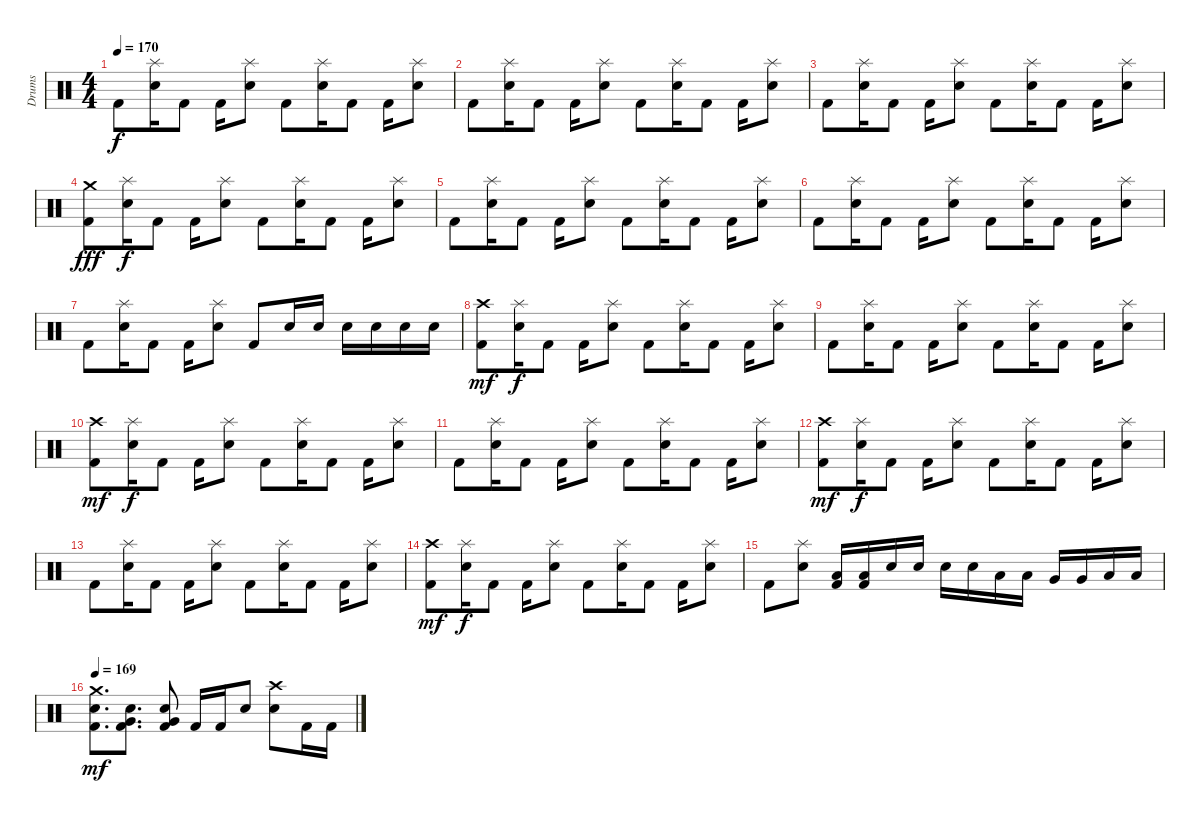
\track ("Drums" "Drums") {instrument percussion}
\staff {score}
\articulation defaults
\ts (4 4)
\tempo 170
\clef neutral
\ks c "Kick (hit) 2".8{dy f}
("Electric Snare (hit)" "Splash (hit)").16 "Kick (hit) 2".8 "Kick (hit) 2".16 ("Electric Snare (hit)" "Splash (hit)").8 "Kick (hit) 2".8 ("Electric Snare (hit)" "Splash (hit)").16 "Kick (hit) 2".8 "Kick (hit) 2".16 ("Electric Snare (hit)" "Splash (hit)").8 |
"Kick (hit) 2".8 ("Electric Snare (hit)" "Splash (hit)").16 "Kick (hit) 2".8 "Kick (hit) 2".16 ("Electric Snare (hit)" "Splash (hit)").8 "Kick (hit) 2".8 ("Electric Snare (hit)" "Splash (hit)").16 "Kick (hit) 2".8 "Kick (hit) 2".16 ("Electric Snare (hit)" "Splash (hit)").8 |
"Kick (hit) 2".8 ("Electric Snare (hit)" "Splash (hit)").16 "Kick (hit) 2".8 "Kick (hit) 2".16 ("Electric Snare (hit)" "Splash (hit)").8 "Kick (hit) 2".8 ("Electric Snare (hit)" "Splash (hit)").16 "Kick (hit) 2".8 "Kick (hit) 2".16 ("Electric Snare (hit)" "Splash (hit)").8 |
("Kick (hit) 2" "Crash medium (hit)").8{dy fff} ("Electric Snare (hit)" "Splash (hit)").16{dy f} "Kick (hit) 2".8 "Kick (hit) 2".16 ("Electric Snare (hit)" "Splash (hit)").8 "Kick (hit) 2".8 ("Electric Snare (hit)" "Splash (hit)").16 "Kick (hit) 2".8 "Kick (hit) 2".16 ("Electric Snare (hit)" "Splash (hit)").8 |
"Kick (hit) 2".8 ("Electric Snare (hit)" "Splash (hit)").16 "Kick (hit) 2".8 "Kick (hit) 2".16 ("Electric Snare (hit)" "Splash (hit)").8 "Kick (hit) 2".8 ("Electric Snare (hit)" "Splash (hit)").16 "Kick (hit) 2".8 "Kick (hit) 2".16 ("Electric Snare (hit)" "Splash (hit)").8 |
"Kick (hit) 2".8 ("Electric Snare (hit)" "Splash (hit)").16 "Kick (hit) 2".8 "Kick (hit) 2".16 ("Electric Snare (hit)" "Splash (hit)").8 "Kick (hit) 2".8 ("Electric Snare (hit)" "Splash (hit)").16 "Kick (hit) 2".8 "Kick (hit) 2".16 ("Electric Snare (hit)" "Splash (hit)").8 |
"Kick (hit) 2".8 ("Electric Snare (hit)" "Splash (hit)").16 "Kick (hit) 2".8 "Kick (hit) 2".16 ("Electric Snare (hit)" "Splash (hit)").8 "Kick (hit) 2".8 "Electric Snare (hit)".16 "Electric Snare (hit)".16 "Electric Snare (hit)".16 "Electric Snare (hit)".16 "Electric Snare (hit)".16 "Electric Snare (hit)".16 |
("Kick (hit) 2" "Crash high (hit)").8{dy mf} ("Electric Snare (hit)" "Splash (hit)").16{dy f} "Kick (hit) 2".8 "Kick (hit) 2".16 ("Electric Snare (hit)" "Splash (hit)").8 "Kick (hit) 2".8 ("Electric Snare (hit)" "Splash (hit)").16 "Kick (hit) 2".8 "Kick (hit) 2".16 ("Electric Snare (hit)" "Splash (hit)").8 |
"Kick (hit) 2".8 ("Electric Snare (hit)" "Splash (hit)").16 "Kick (hit) 2".8 "Kick (hit) 2".16 ("Electric Snare (hit)" "Splash (hit)").8 "Kick (hit) 2".8 ("Electric Snare (hit)" "Splash (hit)").16 "Kick (hit) 2".8 "Kick (hit) 2".16 ("Electric Snare (hit)" "Splash (hit)").8 |
("Kick (hit) 2" "Crash high (hit)").8{dy mf} ("Electric Snare (hit)" "Splash (hit)").16{dy f} "Kick (hit) 2".8 "Kick (hit) 2".16 ("Electric Snare (hit)" "Splash (hit)").8 "Kick (hit) 2".8 ("Electric Snare (hit)" "Splash (hit)").16 "Kick (hit) 2".8 "Kick (hit) 2".16 ("Electric Snare (hit)" "Splash (hit)").8 |
"Kick (hit) 2".8 ("Electric Snare (hit)" "Splash (hit)").16 "Kick (hit) 2".8 "Kick (hit) 2".16 ("Electric Snare (hit)" "Splash (hit)").8 "Kick (hit) 2".8 ("Electric Snare (hit)" "Splash (hit)").16 "Kick (hit) 2".8 "Kick (hit) 2".16 ("Electric Snare (hit)" "Splash (hit)").8 |
("Kick (hit) 2" "Crash high (hit)").8{dy mf} ("Electric Snare (hit)" "Splash (hit)").16{dy f} "Kick (hit) 2".8 "Kick (hit) 2".16 ("Electric Snare (hit)" "Splash (hit)").8 "Kick (hit) 2".8 ("Electric Snare (hit)" "Splash (hit)").16 "Kick (hit) 2".8 "Kick (hit) 2".16 ("Electric Snare (hit)" "Splash (hit)").8 |
"Kick (hit) 2".8 ("Electric Snare (hit)" "Splash (hit)").16 "Kick (hit) 2".8 "Kick (hit) 2".16 ("Electric Snare (hit)" "Splash (hit)").8 "Kick (hit) 2".8 ("Electric Snare (hit)" "Splash (hit)").16 "Kick (hit) 2".8 "Kick (hit) 2".16 ("Electric Snare (hit)" "Splash (hit)").8 |
("Kick (hit) 2" "Crash high (hit)").8{dy mf} ("Electric Snare (hit)" "Splash (hit)").16{dy f} "Kick (hit) 2".8 "Kick (hit) 2".16 ("Electric Snare (hit)" "Splash (hit)").8 "Kick (hit) 2".8 ("Electric Snare (hit)" "Splash (hit)").16 "Kick (hit) 2".8 "Kick (hit) 2".16 ("Electric Snare (hit)" "Splash (hit)").8 |
"Kick (hit) 2".8 ("Electric Snare (hit)" "Splash (hit)").8 ("Kick (hit) 2" "Low Floor Tom (hit)").16 ("Kick (hit) 2" "Low Floor Tom (hit)").16 "Electric Snare (hit)".16 "Electric Snare (hit)".16 "Electric Snare (hit)".16 "Electric Snare (hit)".16 "Low Tom (hit)".16 "Low Tom (hit)".16 "Very Low Tom (hit)".16 "Very Low Tom (hit)".16 "Low Floor Tom (hit)".16 "Low Floor Tom (hit)".16 |
\tempo 169
("Kick (hit) 2" "Electric Snare (hit)" "Crash medium (hit)").8{d dy mf} ("Kick (hit) 2" "Electric Snare (hit)" "Very Low Tom (hit)").8{d} ("Kick (hit) 2" "Electric Snare (hit)" "Very Low Tom (hit)").8 "Kick (hit) 2".16 "Kick (hit) 2".16 "Electric Snare (hit)".8 ("Electric Snare (hit)" "Crash high (hit)").8 "Kick (hit) 2".16 "Kick (hit) 2".16
